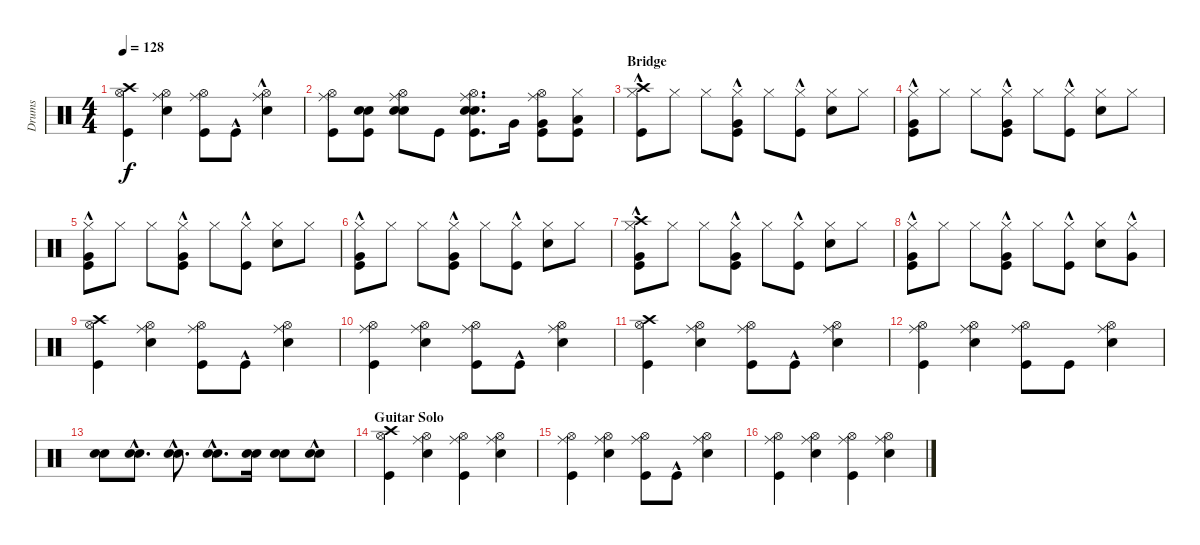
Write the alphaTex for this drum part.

\track ("Drums" "Drums") {instrument percussion}
\staff {score}
\articulation defaults
\ts (4 4)
\tempo 128
\clef neutral
\ks c
("Kick (hit)" "Hi-Hat (open)" "Crash high (hit)").4{dy f} ("Snare (hit) 2" "Hi-Hat (open)" "Ride (middle)").4 ("Kick (hit)" "Hi-Hat (open)" "Ride (middle)").8 "Kick (hit)"{hac}.8 ("Snare (hit) 2"{hac} "Hi-Hat (open)" "Ride (middle)").4 |
("Kick (hit)" "Hi-Hat (open)" "Ride (middle)").8 ("Kick (hit)" "Snare (hit) 2" "Snare (hit) 2").8 ("Snare (hit) 2" "Hi-Hat (open)" "Snare (hit) 2" "Ride (middle)").8 "Kick (hit)".8 ("Kick (hit)" "Snare (hit) 2" "Hi-Hat (open)" "Snare (hit) 2" "Ride (middle)").8{d} "Very Low Tom (hit)".16 ("Kick (hit)" "Very Low Tom (hit)" "Hi-Hat (open)" "Ride (middle)").8 ("Kick (hit)" "Low Floor Tom (hit)" "Hi-Hat (closed)").8 |
\section ("" "Bridge")
("Kick (hit)"{hac} "Hi-Hat (closed)" "Crash high (hit)").8 "Hi-Hat (closed)".8 "Hi-Hat (closed)".8 ("Kick (hit)" "Very Low Tom (hit)"{hac} "Hi-Hat (closed)").8 "Hi-Hat (closed)".8 ("Kick (hit)"{hac} "Hi-Hat (closed)").8 ("Snare (hit) 2" "Hi-Hat (closed)").8 "Hi-Hat (closed)".8 |
("Kick (hit)"{hac} "Very Low Tom (hit)"{hac} "Hi-Hat (closed)").8 "Hi-Hat (closed)".8 "Hi-Hat (closed)".8 ("Kick (hit)" "Very Low Tom (hit)"{hac} "Hi-Hat (closed)").8 "Hi-Hat (closed)".8 ("Kick (hit)"{hac} "Hi-Hat (closed)").8 ("Snare (hit) 2" "Hi-Hat (closed)").8 "Hi-Hat (closed)".8 |
("Kick (hit)"{hac} "Very Low Tom (hit)"{hac} "Hi-Hat (closed)").8 "Hi-Hat (closed)".8 "Hi-Hat (closed)".8 ("Kick (hit)" "Very Low Tom (hit)"{hac} "Hi-Hat (closed)").8 "Hi-Hat (closed)".8 ("Kick (hit)"{hac} "Hi-Hat (closed)").8 ("Snare (hit) 2" "Hi-Hat (closed)").8 "Hi-Hat (closed)".8 |
("Kick (hit)"{hac} "Very Low Tom (hit)"{hac} "Hi-Hat (closed)").8 "Hi-Hat (closed)".8 "Hi-Hat (closed)".8 ("Kick (hit)" "Very Low Tom (hit)"{hac} "Hi-Hat (closed)").8 "Hi-Hat (closed)".8 ("Kick (hit)"{hac} "Hi-Hat (closed)").8 ("Snare (hit) 2" "Hi-Hat (closed)").8 "Hi-Hat (closed)".8 |
("Kick (hit)"{hac} "Very Low Tom (hit)"{hac} "Hi-Hat (closed)" "Crash high (hit)").8 "Hi-Hat (closed)".8 "Hi-Hat (closed)".8 ("Kick (hit)" "Very Low Tom (hit)"{hac} "Hi-Hat (closed)").8 "Hi-Hat (closed)".8 ("Kick (hit)"{hac} "Hi-Hat (closed)").8 ("Snare (hit) 2" "Hi-Hat (closed)").8 "Hi-Hat (closed)".8 |
("Kick (hit)"{hac} "Very Low Tom (hit)"{hac} "Hi-Hat (closed)").8 "Hi-Hat (closed)".8 "Hi-Hat (closed)".8 ("Kick (hit)" "Very Low Tom (hit)"{hac} "Hi-Hat (closed)").8 "Hi-Hat (closed)".8 ("Kick (hit)"{hac} "Hi-Hat (closed)").8 ("Snare (hit) 2" "Hi-Hat (closed)").8 ("Very Low Tom (hit)"{hac} "Hi-Hat (closed)").8 |
("Kick (hit)" "Hi-Hat (open)" "Crash high (hit)").4 ("Snare (hit) 2" "Hi-Hat (open)" "Ride (middle)").4 ("Kick (hit)" "Hi-Hat (open)" "Ride (middle)").8 "Kick (hit)"{hac}.8 ("Snare (hit) 2" "Hi-Hat (open)" "Ride (middle)").4 |
("Kick (hit)" "Hi-Hat (open)" "Ride (middle)").4 ("Snare (hit) 2" "Hi-Hat (open)" "Ride (middle)").4 ("Kick (hit)" "Hi-Hat (open)" "Ride (middle)").8 "Kick (hit)"{hac}.8 ("Snare (hit) 2" "Hi-Hat (open)" "Ride (middle)").4 |
("Kick (hit)" "Hi-Hat (open)" "Crash high (hit)").4 ("Snare (hit) 2" "Hi-Hat (open)" "Ride (middle)").4 ("Kick (hit)" "Hi-Hat (open)" "Ride (middle)").8 "Kick (hit)"{hac}.8 ("Snare (hit) 2" "Hi-Hat (open)" "Ride (middle)").4 |
("Kick (hit)" "Hi-Hat (open)" "Ride (middle)").4 ("Snare (hit) 2" "Hi-Hat (open)" "Ride (middle)").4 ("Kick (hit)" "Hi-Hat (open)" "Ride (middle)").8 "Kick (hit)".8 ("Snare (hit) 2" "Hi-Hat (open)" "Ride (middle)").4 |
("Electric Snare (hit)" "Snare (hit) 2").8 ("Electric Snare (hit)"{hac} "Snare (hit) 2"{hac}).8{d} ("Electric Snare (hit)"{hac} "Snare (hit) 2"{hac}).8{d} ("Electric Snare (hit)"{hac} "Snare (hit) 2"{hac}).8{d} ("Electric Snare (hit)" "Snare (hit) 2").16 ("Electric Snare (hit)" "Snare (hit) 2").8 ("Electric Snare (hit)"{hac} "Snare (hit) 2"{hac}).8 |
\section ("" "Guitar Solo")
("Kick (hit)" "Hi-Hat (open)" "Crash high (hit)").4 ("Snare (hit) 2" "Hi-Hat (open)" "Ride (middle)").4 ("Kick (hit)" "Hi-Hat (open)" "Ride (middle)").4 ("Snare (hit) 2" "Hi-Hat (open)" "Ride (middle)").4 |
("Kick (hit)" "Hi-Hat (open)" "Ride (middle)").4 ("Snare (hit) 2" "Hi-Hat (open)" "Ride (middle)").4 ("Kick (hit)" "Hi-Hat (open)" "Ride (middle)").8 "Kick (hit)"{hac}.8 ("Snare (hit) 2" "Hi-Hat (open)" "Ride (middle)").4 |
("Kick (hit)" "Hi-Hat (open)" "Ride (middle)").4 ("Snare (hit) 2" "Hi-Hat (open)" "Ride (middle)").4 ("Kick (hit)" "Hi-Hat (open)" "Ride (middle)").4 ("Snare (hit) 2" "Hi-Hat (open)" "Ride (middle)").4
